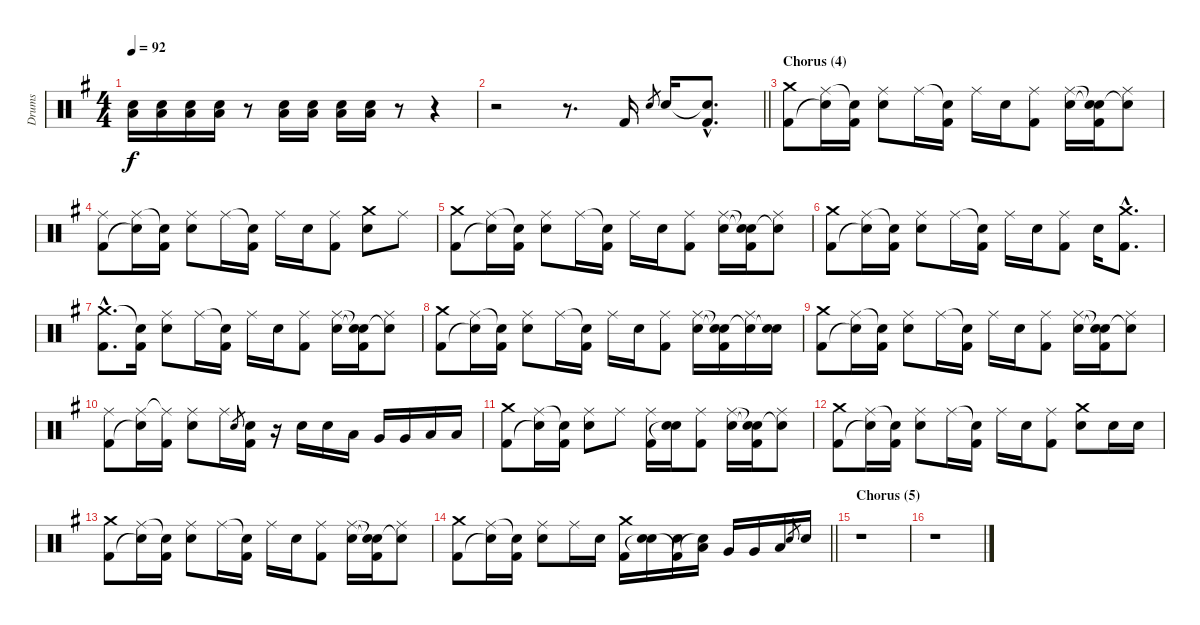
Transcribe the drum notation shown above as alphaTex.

\track ("Drums" "Drums") {instrument percussion}
\staff {score}
\articulation defaults
\ts (4 4)
\tempo 92
\clef neutral
\ks g
("Electric Snare (hit)" "Low Floor Tom (hit)").16{dy f} ("Electric Snare (hit)" "Low Floor Tom (hit)").16 ("Electric Snare (hit)" "Low Floor Tom (hit)").16 ("Electric Snare (hit)" "Low Floor Tom (hit)").16 r.8 ("Electric Snare (hit)" "Low Floor Tom (hit)").16 ("Electric Snare (hit)" "Low Floor Tom (hit)").16 ("Electric Snare (hit)" "Low Floor Tom (hit)").16 ("Electric Snare (hit)" "Low Floor Tom (hit)").16 r.8 r.4 |
\barLineRight lightlight
r.2 r.8{d} "Kick (hit) 2".16 "Electric Snare (hit)".8{gr} "Electric Snare (hit)".16 ("Snare (hit)"{hac t} "Kick (hit) 2"{hac}).8{d} |
\section ("" "Chorus (4)")
("Crash medium (hit)" "Kick (hit) 2").8 ("Ride (middle)" "Snare (hit)"{t}).16 ("Snare (hit)"{t} "Kick (hit) 2").16 ("Ride (middle)" "Electric Snare (hit)").8 "Ride (middle)".16 ("Snare (hit)"{t} "Kick (hit) 2").16 "Ride (middle)".16 "Electric Snare (hit)".16 ("Ride (middle)" "Kick (hit) 2").8 ("Ride (middle)" "Electric Snare (hit)").16 ("Snare (hit)"{t} "Snare (hit)"{t} "Kick (hit) 2").16 ("Ride (middle)" "Snare (hit)"{t}).8 |
("Ride (middle)" "Kick (hit) 2").8 ("Ride (middle)" "Snare (hit)"{t}).16 ("Snare (hit)"{t} "Kick (hit) 2").16 ("Ride (middle)" "Electric Snare (hit)").8 "Ride (middle)".16 ("Snare (hit)"{t} "Kick (hit) 2").16 "Ride (middle)".16 "Electric Snare (hit)".16 ("Ride (middle)" "Kick (hit) 2").8 ("Crash medium (hit)" "Electric Snare (hit)").8 "Ride (middle)".8 |
("Crash medium (hit)" "Kick (hit) 2").8 ("Ride (middle)" "Snare (hit)"{t}).16 ("Snare (hit)"{t} "Kick (hit) 2").16 ("Ride (middle)" "Electric Snare (hit)").8 "Ride (middle)".16 ("Snare (hit)"{t} "Kick (hit) 2").16 "Ride (middle)".16 "Electric Snare (hit)".16 ("Ride (middle)" "Kick (hit) 2").8 ("Ride (middle)" "Electric Snare (hit)").16 ("Snare (hit)"{t} "Snare (hit)"{t} "Kick (hit) 2").16 ("Ride (middle)" "Snare (hit)"{t}).8 |
("Crash medium (hit)" "Kick (hit) 2").8 ("Ride (middle)" "Snare (hit)"{t}).16 ("Snare (hit)"{t} "Kick (hit) 2").16 ("Ride (middle)" "Electric Snare (hit)").8 "Ride (middle)".16 ("Snare (hit)"{t} "Kick (hit) 2").16 "Ride (middle)".16 "Electric Snare (hit)".16 ("Ride (middle)" "Kick (hit) 2").8 "Electric Snare (hit)".16 ("Crash medium (hit)"{hac} "Kick (hit) 2"{hac}).8{d} |
("Crash medium (hit)"{hac} "Kick (hit) 2"{hac}).8{d} ("Snare (hit)"{t} "Kick (hit) 2").16 ("Ride (middle)" "Electric Snare (hit)").8 "Ride (middle)".16 ("Snare (hit)"{t} "Kick (hit) 2").16 "Ride (middle)".16 "Electric Snare (hit)".16 ("Ride (middle)" "Kick (hit) 2").8 ("Ride (middle)" "Electric Snare (hit)").16 ("Snare (hit)"{t} "Snare (hit)"{t} "Kick (hit) 2").16 ("Ride (middle)" "Snare (hit)"{t}).8 |
("Crash medium (hit)" "Kick (hit) 2").8 ("Ride (middle)" "Snare (hit)"{t}).16 ("Snare (hit)"{t} "Kick (hit) 2").16 ("Ride (middle)" "Electric Snare (hit)").8 "Ride (middle)".16 ("Snare (hit)"{t} "Kick (hit) 2").16 "Ride (middle)".16 "Electric Snare (hit)".16 ("Ride (middle)" "Kick (hit) 2").8 ("Ride (middle)" "Electric Snare (hit)").16 ("Snare (hit)"{t} "Snare (hit)"{t} "Kick (hit) 2").16 ("Ride (middle)" "Snare (hit)"{t}).16 ("Electric Snare (hit)" "Snare (hit)"{t}).16 |
("Crash medium (hit)" "Kick (hit) 2").8 ("Ride (middle)" "Snare (hit)"{t}).16 ("Snare (hit)"{t} "Kick (hit) 2").16 ("Ride (middle)" "Electric Snare (hit)").8 "Ride (middle)".16 ("Snare (hit)"{t} "Kick (hit) 2").16 "Ride (middle)".16 "Electric Snare (hit)".16 ("Ride (middle)" "Kick (hit) 2").8 ("Ride (middle)" "Electric Snare (hit)").16 ("Snare (hit)"{t} "Snare (hit)"{t} "Kick (hit) 2").16 ("Ride (middle)" "Snare (hit)"{t}).8 |
("Ride (middle)" "Kick (hit) 2").8 ("Ride (middle)" "Snare (hit)"{t}).16 ("Ride (middle)"{t} "Kick (hit) 2").16 ("Ride (middle)" "Electric Snare (hit)").8 "Ride (middle)".16 "Electric Snare (hit)".8{gr} ("Electric Snare (hit)" "Kick (hit) 2").16 r.16 "Electric Snare (hit)".16 "Electric Snare (hit)".16 "Low Tom (hit)".16 "Very Low Tom (hit)".16 "Very Low Tom (hit)".16 "Low Floor Tom (hit)".16 "Low Floor Tom (hit)".16 |
("Crash medium (hit)" "Kick (hit) 2").8 ("Ride (middle)" "Snare (hit)"{t}).16 ("Snare (hit)"{t} "Kick (hit) 2").16 ("Ride (middle)" "Electric Snare (hit)").8 "Ride (middle)".8 ("Ride (middle)" "Kick (hit) 2").16 ("Electric Snare (hit)" "Snare (hit)"{t}).16 ("Ride (middle)" "Kick (hit) 2").8 ("Ride (middle)" "Electric Snare (hit)").16 ("Snare (hit)"{t} "Snare (hit)"{t} "Kick (hit) 2").16 ("Ride (middle)" "Snare (hit)"{t}).8 |
("Crash medium (hit)" "Kick (hit) 2").8 ("Ride (middle)" "Snare (hit)"{t}).16 ("Snare (hit)"{t} "Kick (hit) 2").16 ("Ride (middle)" "Electric Snare (hit)").8 "Ride (middle)".16 ("Snare (hit)"{t} "Kick (hit) 2").16 "Ride (middle)".16 "Electric Snare (hit)".16 ("Ride (middle)" "Kick (hit) 2").8 ("Crash medium (hit)" "Electric Snare (hit)").8 "Electric Snare (hit)".16 "Electric Snare (hit)".16 |
("Crash medium (hit)" "Kick (hit) 2").8 ("Ride (middle)" "Snare (hit)"{t}).16 ("Snare (hit)"{t} "Kick (hit) 2").16 ("Ride (middle)" "Electric Snare (hit)").8 "Ride (middle)".16 ("Snare (hit)"{t} "Kick (hit) 2").16 "Ride (middle)".16 "Electric Snare (hit)".16 ("Ride (middle)" "Kick (hit) 2").8 ("Ride (middle)" "Electric Snare (hit)").16 ("Snare (hit)"{t} "Snare (hit)"{t} "Kick (hit) 2").16 ("Ride (middle)" "Snare (hit)"{t}).8 |
\barLineRight lightlight
("Crash medium (hit)" "Kick (hit) 2").8 ("Ride (middle)" "Snare (hit)"{t}).16 ("Snare (hit)"{t} "Kick (hit) 2").16 ("Ride (middle)" "Electric Snare (hit)").8 "Ride (middle)".16 "Electric Snare (hit)".16 ("Crash medium (hit)" "Kick (hit) 2").16 ("Electric Snare (hit)" "Snare (hit)"{t}).16 ("Electric Snare (hit)" "Kick (hit) 2"{t}).16 ("Low Tom (hit)" "Snare (hit)"{t}).16 "Very Low Tom (hit)".16 "Very Low Tom (hit)".16 "Low Floor Tom (hit)".16 "Electric Snare (hit)".8{gr} "Electric Snare (hit)".16 |
\section ("" "Chorus (5)")
r.1 |
r.1
